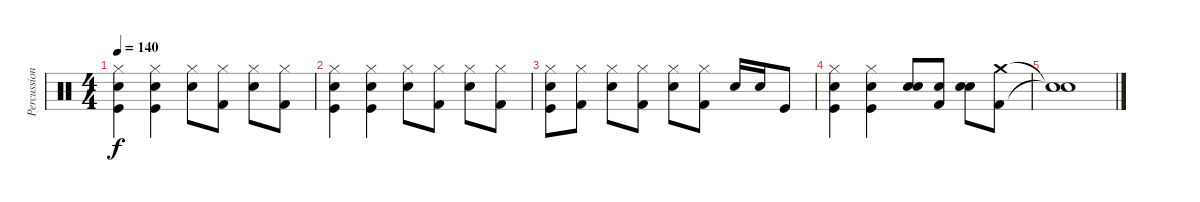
\track ("Percussion" "Percussion") {instrument percussion}
\staff {score}
\articulation defaults
\ts (4 4)
\tempo 140
\clef neutral
\ks c
("Hi-Hat (closed)" "Snare (hit) 2" "Kick (hit)").4{dy f} ("Hi-Hat (closed)" "Snare (hit) 2" "Kick (hit)").4 ("Hi-Hat (closed)" "Snare (hit) 2").8 ("Hi-Hat (closed)" "Kick (hit) 2").8 ("Hi-Hat (closed)" "Snare (hit) 2").8 ("Hi-Hat (closed)" "Kick (hit) 2").8 |
("Hi-Hat (closed)" "Snare (hit) 2" "Kick (hit)").4 ("Hi-Hat (closed)" "Snare (hit) 2" "Kick (hit)").4 ("Hi-Hat (closed)" "Snare (hit) 2").8 ("Hi-Hat (closed)" "Kick (hit) 2").8 ("Hi-Hat (closed)" "Snare (hit) 2").8 ("Hi-Hat (closed)" "Kick (hit) 2").8 |
("Hi-Hat (closed)" "Snare (hit) 2" "Kick (hit)").8 ("Hi-Hat (closed)" "Kick (hit) 2").8 ("Hi-Hat (closed)" "Snare (hit) 2").8 ("Hi-Hat (closed)" "Kick (hit) 2").8 ("Hi-Hat (closed)" "Snare (hit) 2").8 ("Hi-Hat (closed)" "Kick (hit) 2").8 "Snare (hit) 2".16 "Snare (hit) 2".16 "Kick (hit)".8 |
("Hi-Hat (closed)" "Snare (hit) 2" "Kick (hit)").4 ("Hi-Hat (closed)" "Snare (hit) 2" "Kick (hit)").4 ("Snare (hit) 2" "Snare (hit) 2").8 ("Snare (hit) 2" "Kick (hit) 2").8 ("Snare (hit) 2" "Snare (hit) 2").8 ("Crash medium (hit)" "Kick (hit) 2").8 |
("Snare (hit)"{t} "Snare (hit)"{t}).1
